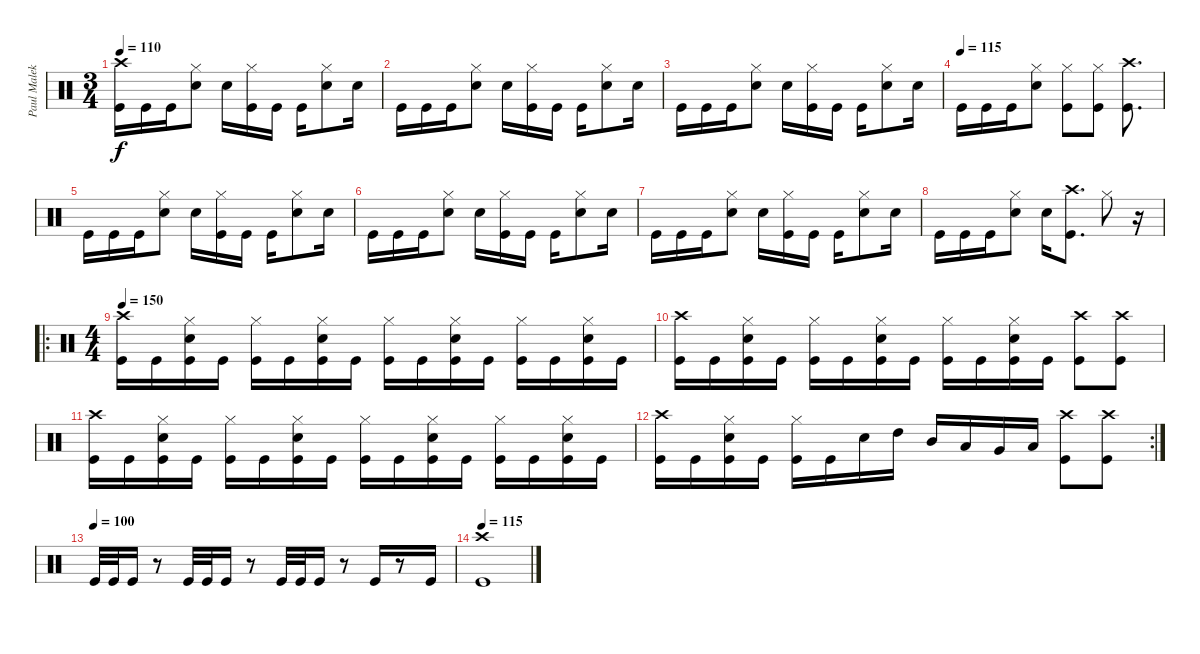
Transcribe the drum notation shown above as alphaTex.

\track ("Paul Malek" "Paul Malek") {instrument percussion}
\staff {score}
\articulation defaults
\ts (3 4)
\tempo 110
\clef neutral
\ks c
("Crash high (hit)" "Kick (hit)").16{dy f} "Kick (hit)".16 "Kick (hit)".16 ("Hi-Hat (closed)" "Snare (hit) 2").8 "Snare (hit) 2".16 ("Hi-Hat (closed)" "Kick (hit)").16 "Kick (hit)".16 "Kick (hit)".16 ("Hi-Hat (closed)" "Snare (hit) 2").8 "Snare (hit) 2".16 |
"Kick (hit)".16 "Kick (hit)".16 "Kick (hit)".16 ("Hi-Hat (closed)" "Snare (hit) 2").8 "Snare (hit) 2".16 ("Hi-Hat (closed)" "Kick (hit)").16 "Kick (hit)".16 "Kick (hit)".16 ("Hi-Hat (closed)" "Snare (hit) 2").8 "Snare (hit) 2".16 |
"Kick (hit)".16 "Kick (hit)".16 "Kick (hit)".16 ("Hi-Hat (closed)" "Snare (hit) 2").8 "Snare (hit) 2".16 ("Hi-Hat (closed)" "Kick (hit)").16 "Kick (hit)".16 "Kick (hit)".16 ("Hi-Hat (closed)" "Snare (hit) 2").8 "Snare (hit) 2".16 |
\tempo (115)
"Kick (hit)".16 "Kick (hit)".16 "Kick (hit)".16 ("Hi-Hat (closed)" "Snare (hit) 2").8 ("Hi-Hat (closed)" "Kick (hit)").8 ("Hi-Hat (closed)" "Kick (hit)").8 ("Crash high (hit)" "Kick (hit)").8{d} |
"Kick (hit)".16 "Kick (hit)".16 "Kick (hit)".16 ("Hi-Hat (closed)" "Snare (hit) 2").8 "Snare (hit) 2".16 ("Hi-Hat (closed)" "Kick (hit)").16 "Kick (hit)".16 "Kick (hit)".16 ("Hi-Hat (closed)" "Snare (hit) 2").8 "Snare (hit) 2".16 |
"Kick (hit)".16 "Kick (hit)".16 "Kick (hit)".16 ("Hi-Hat (closed)" "Snare (hit) 2").8 "Snare (hit) 2".16 ("Hi-Hat (closed)" "Kick (hit)").16 "Kick (hit)".16 "Kick (hit)".16 ("Hi-Hat (closed)" "Snare (hit) 2").8 "Snare (hit) 2".16 |
"Kick (hit)".16 "Kick (hit)".16 "Kick (hit)".16 ("Hi-Hat (closed)" "Snare (hit) 2").8 "Snare (hit) 2".16 ("Hi-Hat (closed)" "Kick (hit)").16 "Kick (hit)".16 "Kick (hit)".16 ("Hi-Hat (closed)" "Snare (hit) 2").8 "Snare (hit) 2".16 |
"Kick (hit)".16 "Kick (hit)".16 "Kick (hit)".16 ("Hi-Hat (closed)" "Snare (hit) 2").8 "Snare (hit) 2".16 ("Crash high (hit)" "Kick (hit)").8{d} "Hi-Hat (closed)".8 r.16 |
\ro
\ts (4 4)
\tempo 150
("Crash high (hit)" "Kick (hit)").16 "Kick (hit)".16 ("Hi-Hat (closed)" "Snare (hit) 2" "Kick (hit)").16 "Kick (hit)".16 ("Hi-Hat (closed)" "Kick (hit)").16 "Kick (hit)".16 ("Hi-Hat (closed)" "Snare (hit) 2" "Kick (hit)").16 "Kick (hit)".16 ("Hi-Hat (closed)" "Kick (hit)").16 "Kick (hit)".16 ("Hi-Hat (closed)" "Snare (hit) 2" "Kick (hit)").16 "Kick (hit)".16 ("Hi-Hat (closed)" "Kick (hit)").16 "Kick (hit)".16 ("Hi-Hat (closed)" "Snare (hit) 2" "Kick (hit)").16 "Kick (hit)".16 |
("Crash high (hit)" "Kick (hit)").16 "Kick (hit)".16 ("Hi-Hat (closed)" "Snare (hit) 2" "Kick (hit)").16 "Kick (hit)".16 ("Hi-Hat (closed)" "Kick (hit)").16 "Kick (hit)".16 ("Hi-Hat (closed)" "Snare (hit) 2" "Kick (hit)").16 "Kick (hit)".16 ("Hi-Hat (closed)" "Kick (hit)").16 "Kick (hit)".16 ("Hi-Hat (closed)" "Snare (hit) 2" "Kick (hit)").16 "Kick (hit)".16 ("Crash high (hit)" "Kick (hit)").8 ("Crash high (hit)" "Kick (hit)").8 |
("Crash high (hit)" "Kick (hit)").16 "Kick (hit)".16 ("Hi-Hat (closed)" "Snare (hit) 2" "Kick (hit)").16 "Kick (hit)".16 ("Hi-Hat (closed)" "Kick (hit)").16 "Kick (hit)".16 ("Hi-Hat (closed)" "Snare (hit) 2" "Kick (hit)").16 "Kick (hit)".16 ("Hi-Hat (closed)" "Kick (hit)").16 "Kick (hit)".16 ("Hi-Hat (closed)" "Snare (hit) 2" "Kick (hit)").16 "Kick (hit)".16 ("Hi-Hat (closed)" "Kick (hit)").16 "Kick (hit)".16 ("Hi-Hat (closed)" "Snare (hit) 2" "Kick (hit)").16 "Kick (hit)".16 |
\rc 2
("Crash high (hit)" "Kick (hit)").16 "Kick (hit)".16 ("Hi-Hat (closed)" "Snare (hit) 2" "Kick (hit)").16 "Kick (hit)".16 ("Hi-Hat (closed)" "Kick (hit)").16 "Kick (hit)".16 "Electric Snare (hit)".16 "High Tom (hit)".16 "Mid Tom (hit)".16 "Low Tom (hit)".16 "Very Low Tom (hit)".16 "Low Floor Tom (hit)".16 ("Crash high (hit)" "Kick (hit)").8 ("Crash high (hit)" "Kick (hit)").8 |
\tempo (100)
"Kick (hit)".32 "Kick (hit)".32 "Kick (hit)".16 r.8 "Kick (hit)".32 "Kick (hit)".32 "Kick (hit)".16 r.8 "Kick (hit)".32 "Kick (hit)".32 "Kick (hit)".16 r.8 "Kick (hit)".16 r.8 "Kick (hit)".16 |
\tempo 115
("Crash high (hit)" "Kick (hit)").1
